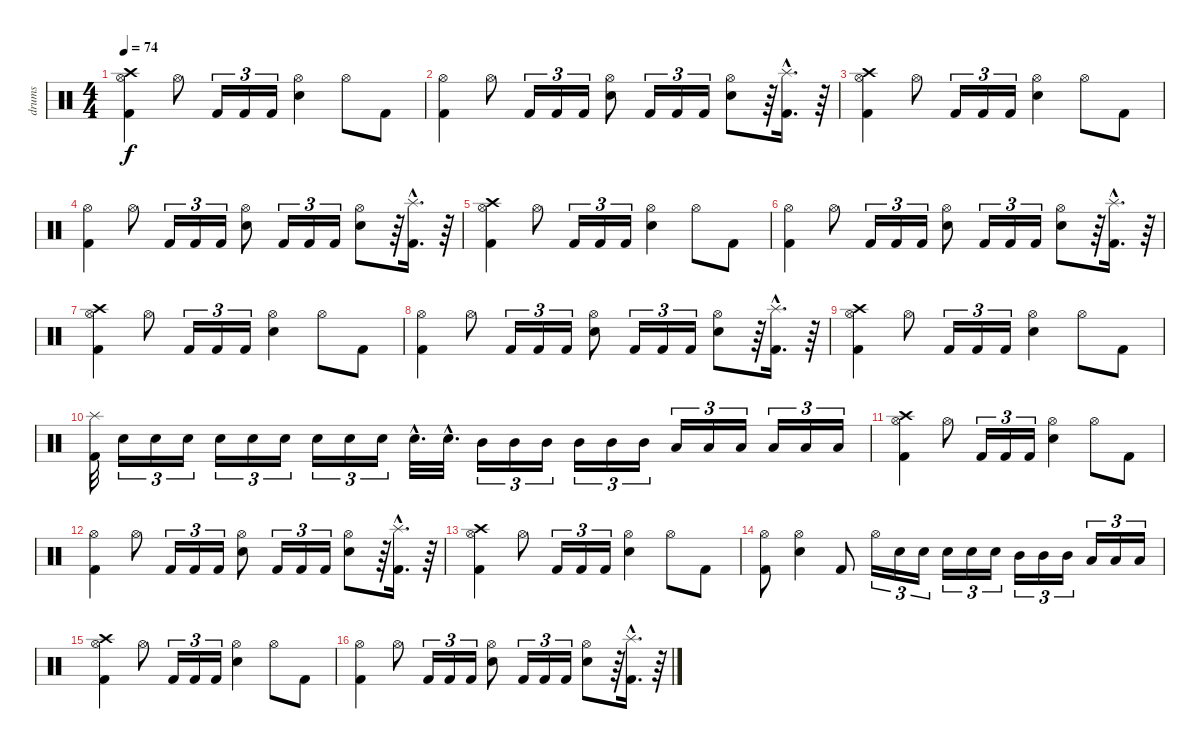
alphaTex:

\track ("drums" "drums") {instrument percussion}
\staff {score}
\articulation defaults
\ts (4 4)
\tempo 74
\clef neutral
\ks c
("Kick (hit) 2" "Crash high (hit)" "Hi-Hat (open)").4{dy f} "Hi-Hat (open)".8 "Kick (hit) 2".16{tu (3 2)} "Kick (hit) 2".16{tu (3 2)} "Kick (hit) 2".16{tu (3 2)} ("Hi-Hat (open)" "Snare (hit) 2").4 "Hi-Hat (open)".8 "Kick (hit) 2".8 |
("Hi-Hat (open)" "Kick (hit) 2").4 "Hi-Hat (open)".8 "Kick (hit) 2".16{tu (3 2)} "Kick (hit) 2".16{tu (3 2)} "Kick (hit) 2".16{tu (3 2)} ("Snare (hit) 2" "Hi-Hat (open)").8 "Kick (hit) 2".16{tu (3 2)} "Kick (hit) 2".16{tu (3 2)} "Kick (hit) 2".16{tu (3 2)} ("Hi-Hat (open)" "Snare (hit) 2").8 r.64 ("Splash (hit)"{hac} "Kick (hit) 2"{hac}).16{d} r.64 |
("Kick (hit) 2" "Crash high (hit)" "Hi-Hat (open)").4 "Hi-Hat (open)".8 "Kick (hit) 2".16{tu (3 2)} "Kick (hit) 2".16{tu (3 2)} "Kick (hit) 2".16{tu (3 2)} ("Hi-Hat (open)" "Snare (hit) 2").4 "Hi-Hat (open)".8 "Kick (hit) 2".8 |
("Hi-Hat (open)" "Kick (hit) 2").4 "Hi-Hat (open)".8 "Kick (hit) 2".16{tu (3 2)} "Kick (hit) 2".16{tu (3 2)} "Kick (hit) 2".16{tu (3 2)} ("Snare (hit) 2" "Hi-Hat (open)").8 "Kick (hit) 2".16{tu (3 2)} "Kick (hit) 2".16{tu (3 2)} "Kick (hit) 2".16{tu (3 2)} ("Hi-Hat (open)" "Snare (hit) 2").8 r.64 ("Splash (hit)"{hac} "Kick (hit) 2"{hac}).16{d} r.64 |
("Kick (hit) 2" "Crash high (hit)" "Hi-Hat (open)").4 "Hi-Hat (open)".8 "Kick (hit) 2".16{tu (3 2)} "Kick (hit) 2".16{tu (3 2)} "Kick (hit) 2".16{tu (3 2)} ("Hi-Hat (open)" "Snare (hit) 2").4 "Hi-Hat (open)".8 "Kick (hit) 2".8 |
("Hi-Hat (open)" "Kick (hit) 2").4 "Hi-Hat (open)".8 "Kick (hit) 2".16{tu (3 2)} "Kick (hit) 2".16{tu (3 2)} "Kick (hit) 2".16{tu (3 2)} ("Snare (hit) 2" "Hi-Hat (open)").8 "Kick (hit) 2".16{tu (3 2)} "Kick (hit) 2".16{tu (3 2)} "Kick (hit) 2".16{tu (3 2)} ("Hi-Hat (open)" "Snare (hit) 2").8 r.64 ("Splash (hit)"{hac} "Kick (hit) 2"{hac}).16{d} r.64 |
("Kick (hit) 2" "Crash high (hit)" "Hi-Hat (open)").4 "Hi-Hat (open)".8 "Kick (hit) 2".16{tu (3 2)} "Kick (hit) 2".16{tu (3 2)} "Kick (hit) 2".16{tu (3 2)} ("Hi-Hat (open)" "Snare (hit) 2").4 "Hi-Hat (open)".8 "Kick (hit) 2".8 |
("Hi-Hat (open)" "Kick (hit) 2").4 "Hi-Hat (open)".8 "Kick (hit) 2".16{tu (3 2)} "Kick (hit) 2".16{tu (3 2)} "Kick (hit) 2".16{tu (3 2)} ("Snare (hit) 2" "Hi-Hat (open)").8 "Kick (hit) 2".16{tu (3 2)} "Kick (hit) 2".16{tu (3 2)} "Kick (hit) 2".16{tu (3 2)} ("Hi-Hat (open)" "Snare (hit) 2").8 r.64 ("Splash (hit)"{hac} "Kick (hit) 2"{hac}).16{d} r.64 |
("Kick (hit) 2" "Crash high (hit)" "Hi-Hat (open)").4 "Hi-Hat (open)".8 "Kick (hit) 2".16{tu (3 2)} "Kick (hit) 2".16{tu (3 2)} "Kick (hit) 2".16{tu (3 2)} ("Hi-Hat (open)" "Snare (hit) 2").4 "Hi-Hat (open)".8 "Kick (hit) 2".8 |
("Splash (hit)" "Kick (hit) 2").32 "Electric Snare (hit)".16{tu (3 2)} "Electric Snare (hit)".16{tu (3 2)} "Electric Snare (hit)".16{tu (3 2)} "Electric Snare (hit)".16{tu (3 2)} "Electric Snare (hit)".16{tu (3 2)} "Electric Snare (hit)".16{tu (3 2)} "Electric Snare (hit)".16{tu (3 2)} "Electric Snare (hit)".16{tu (3 2)} "Electric Snare (hit)".16{tu (3 2)} "Electric Snare (hit)"{hac}.32{d} "Electric Snare (hit)"{hac}.32{d} "Mid Tom (hit)".16{tu (3 2)} "Mid Tom (hit)".16{tu (3 2)} "Mid Tom (hit)".16{tu (3 2)} "Mid Tom (hit)".16{tu (3 2)} "Mid Tom (hit)".16{tu (3 2)} "Mid Tom (hit)".16{tu (3 2)} "Low Tom (hit)".16{tu (3 2)} "Low Tom (hit)".16{tu (3 2)} "Low Tom (hit)".16{tu (3 2)} "Low Tom (hit)".16{tu (3 2)} "Low Tom (hit)".16{tu (3 2)} "Low Tom (hit)".16{tu (3 2)} |
("Kick (hit) 2" "Crash high (hit)" "Hi-Hat (open)").4 "Hi-Hat (open)".8 "Kick (hit) 2".16{tu (3 2)} "Kick (hit) 2".16{tu (3 2)} "Kick (hit) 2".16{tu (3 2)} ("Hi-Hat (open)" "Snare (hit) 2").4 "Hi-Hat (open)".8 "Kick (hit) 2".8 |
("Hi-Hat (open)" "Kick (hit) 2").4 "Hi-Hat (open)".8 "Kick (hit) 2".16{tu (3 2)} "Kick (hit) 2".16{tu (3 2)} "Kick (hit) 2".16{tu (3 2)} ("Snare (hit) 2" "Hi-Hat (open)").8 "Kick (hit) 2".16{tu (3 2)} "Kick (hit) 2".16{tu (3 2)} "Kick (hit) 2".16{tu (3 2)} ("Hi-Hat (open)" "Snare (hit) 2").8 r.64 ("Splash (hit)"{hac} "Kick (hit) 2"{hac}).16{d} r.64 |
("Kick (hit) 2" "Crash high (hit)" "Hi-Hat (open)").4 "Hi-Hat (open)".8 "Kick (hit) 2".16{tu (3 2)} "Kick (hit) 2".16{tu (3 2)} "Kick (hit) 2".16{tu (3 2)} ("Hi-Hat (open)" "Snare (hit) 2").4 "Hi-Hat (open)".8 "Kick (hit) 2".8 |
("Hi-Hat (open)" "Kick (hit) 2").8 ("Hi-Hat (open)" "Electric Snare (hit)").4 "Kick (hit) 2".8 "Hi-Hat (open)".16{tu (3 2)} "Electric Snare (hit)".16{tu (3 2)} "Electric Snare (hit)".16{tu (3 2)} "Electric Snare (hit)".16{tu (3 2)} "Electric Snare (hit)".16{tu (3 2)} "Electric Snare (hit)".16{tu (3 2)} "Mid Tom (hit)".16{tu (3 2)} "Mid Tom (hit)".16{tu (3 2)} "Mid Tom (hit)".16{tu (3 2)} "Low Tom (hit)".16{tu (3 2)} "Low Tom (hit)".16{tu (3 2)} "Low Tom (hit)".16{tu (3 2)} |
("Kick (hit) 2" "Crash high (hit)" "Hi-Hat (open)").4 "Hi-Hat (open)".8 "Kick (hit) 2".16{tu (3 2)} "Kick (hit) 2".16{tu (3 2)} "Kick (hit) 2".16{tu (3 2)} ("Hi-Hat (open)" "Snare (hit) 2").4 "Hi-Hat (open)".8 "Kick (hit) 2".8 |
("Hi-Hat (open)" "Kick (hit) 2").4 "Hi-Hat (open)".8 "Kick (hit) 2".16{tu (3 2)} "Kick (hit) 2".16{tu (3 2)} "Kick (hit) 2".16{tu (3 2)} ("Snare (hit) 2" "Hi-Hat (open)").8 "Kick (hit) 2".16{tu (3 2)} "Kick (hit) 2".16{tu (3 2)} "Kick (hit) 2".16{tu (3 2)} ("Hi-Hat (open)" "Snare (hit) 2").8 r.64 ("Splash (hit)"{hac} "Kick (hit) 2"{hac}).16{d} r.64
